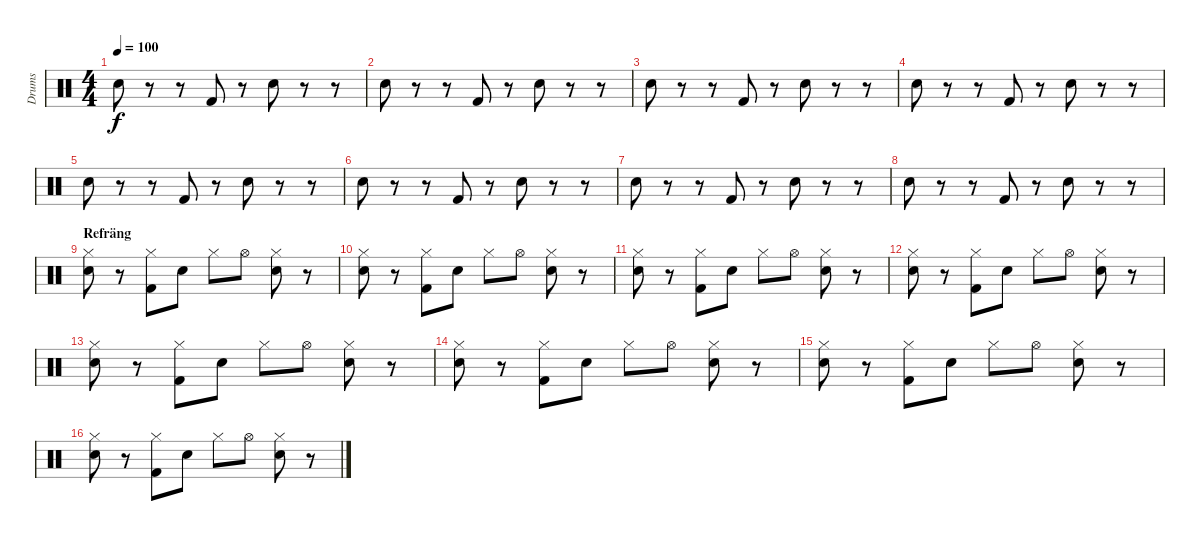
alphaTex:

\track ("Drums" "Drums") {instrument percussion}
\staff {score}
\articulation defaults
\ts (4 4)
\tempo 100
\clef neutral
\ks c "Snare (hit) 2".8{dy f}
r.8 r.8 "Kick (hit) 2".8 r.8 "Snare (hit) 2".8 r.8 r.8 |
"Snare (hit) 2".8 r.8 r.8 "Kick (hit) 2".8 r.8 "Snare (hit) 2".8 r.8 r.8 |
"Snare (hit) 2".8 r.8 r.8 "Kick (hit) 2".8 r.8 "Snare (hit) 2".8 r.8 r.8 |
"Snare (hit) 2".8 r.8 r.8 "Kick (hit) 2".8 r.8 "Snare (hit) 2".8 r.8 r.8 |
"Snare (hit) 2".8 r.8 r.8 "Kick (hit) 2".8 r.8 "Snare (hit) 2".8 r.8 r.8 |
"Snare (hit) 2".8 r.8 r.8 "Kick (hit) 2".8 r.8 "Snare (hit) 2".8 r.8 r.8 |
"Snare (hit) 2".8 r.8 r.8 "Kick (hit) 2".8 r.8 "Snare (hit) 2".8 r.8 r.8 |
"Snare (hit) 2".8 r.8 r.8 "Kick (hit) 2".8 r.8 "Snare (hit) 2".8 r.8 r.8 |
\section ("" "Refräng")
("Hi-Hat (closed)" "Snare (hit) 2").8 r.8 ("Hi-Hat (closed)" "Kick (hit) 2").8 "Snare (hit) 2".8 "Hi-Hat (closed)".8 "Hi-Hat (open)".8 ("Hi-Hat (closed)" "Snare (hit) 2").8 r.8 |
("Hi-Hat (closed)" "Snare (hit) 2").8 r.8 ("Hi-Hat (closed)" "Kick (hit) 2").8 "Snare (hit) 2".8 "Hi-Hat (closed)".8 "Hi-Hat (open)".8 ("Hi-Hat (closed)" "Snare (hit) 2").8 r.8 |
("Hi-Hat (closed)" "Snare (hit) 2").8 r.8 ("Hi-Hat (closed)" "Kick (hit) 2").8 "Snare (hit) 2".8 "Hi-Hat (closed)".8 "Hi-Hat (open)".8 ("Hi-Hat (closed)" "Snare (hit) 2").8 r.8 |
("Hi-Hat (closed)" "Snare (hit) 2").8 r.8 ("Hi-Hat (closed)" "Kick (hit) 2").8 "Snare (hit) 2".8 "Hi-Hat (closed)".8 "Hi-Hat (open)".8 ("Hi-Hat (closed)" "Snare (hit) 2").8 r.8 |
("Hi-Hat (closed)" "Snare (hit) 2").8 r.8 ("Hi-Hat (closed)" "Kick (hit) 2").8 "Snare (hit) 2".8 "Hi-Hat (closed)".8 "Hi-Hat (open)".8 ("Hi-Hat (closed)" "Snare (hit) 2").8 r.8 |
("Hi-Hat (closed)" "Snare (hit) 2").8 r.8 ("Hi-Hat (closed)" "Kick (hit) 2").8 "Snare (hit) 2".8 "Hi-Hat (closed)".8 "Hi-Hat (open)".8 ("Hi-Hat (closed)" "Snare (hit) 2").8 r.8 |
("Hi-Hat (closed)" "Snare (hit) 2").8 r.8 ("Hi-Hat (closed)" "Kick (hit) 2").8 "Snare (hit) 2".8 "Hi-Hat (closed)".8 "Hi-Hat (open)".8 ("Hi-Hat (closed)" "Snare (hit) 2").8 r.8 |
("Hi-Hat (closed)" "Snare (hit) 2").8 r.8 ("Hi-Hat (closed)" "Kick (hit) 2").8 "Snare (hit) 2".8 "Hi-Hat (closed)".8 "Hi-Hat (open)".8 ("Hi-Hat (closed)" "Snare (hit) 2").8 r.8
